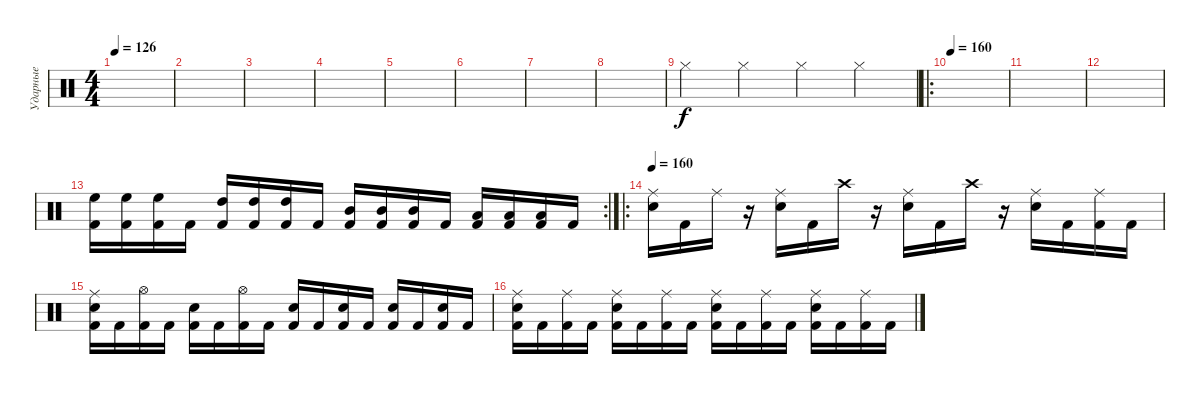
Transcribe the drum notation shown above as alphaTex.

\track ("Ударные" "Ударные") {instrument percussion}
\staff {score}
\articulation defaults
\ts (4 4)
\tempo 126
\clef neutral
\ks c
|
|
|
|
|
|
|
|
"Hi-Hat (closed)".4 "Hi-Hat (closed)".4 "Hi-Hat (closed)".4 "Hi-Hat (closed)".4 |
\ro
\tempo 160
|
|
|
\rc 2
("Kick (hit) 2" "High Floor Tom (hit)").16 ("Kick (hit) 2" "High Floor Tom (hit)").16 ("Kick (hit) 2" "High Floor Tom (hit)").16 "Kick (hit) 2".16 ("Kick (hit) 2" "High Tom (hit)").16 ("Kick (hit) 2" "High Tom (hit)").16 ("Kick (hit) 2" "High Tom (hit)").16 "Kick (hit) 2".16 ("Kick (hit) 2" "Mid Tom (hit)").16 ("Kick (hit) 2" "Mid Tom (hit)").16 ("Kick (hit) 2" "Mid Tom (hit)").16 "Kick (hit) 2".16 ("Kick (hit) 2" "Low Tom (hit)").16 ("Kick (hit) 2" "Low Tom (hit)").16 ("Kick (hit) 2" "Low Tom (hit)").16 "Kick (hit) 2".16 |
\ro
\tempo 160
("Ride (middle)" "Snare (hit) 2").16 "Kick (hit) 2".16 "Ride (middle)".16 r.16 ("Ride (middle)" "Snare (hit) 2").16 "Kick (hit) 2".16 "Crash high (hit)".16 r.16 ("Ride (middle)" "Snare (hit) 2").16 "Kick (hit) 2".16 "Crash high (hit)".16 r.16 ("Ride (middle)" "Snare (hit) 2").16 "Kick (hit) 2".16 ("Kick (hit) 2" "Ride (middle)").16 "Kick (hit) 2".16 |
("Kick (hit) 2" "Ride (middle)" "Snare (hit) 2").16 "Kick (hit) 2".16 ("Kick (hit) 2" "Hi-Hat (open)").16 "Kick (hit) 2".16 ("Kick (hit) 2" "Snare (hit) 2").16 "Kick (hit) 2".16 ("Kick (hit) 2" "Hi-Hat (open)").16 "Kick (hit) 2".16 ("Kick (hit) 2" "Snare (hit) 2").16 "Kick (hit) 2".16 ("Kick (hit) 2" "Snare (hit) 2").16 "Kick (hit) 2".16 ("Kick (hit) 2" "Snare (hit) 2").16 "Kick (hit) 2".16 ("Kick (hit) 2" "Snare (hit) 2").16 "Kick (hit) 2".16 |
("Kick (hit) 2" "Ride (middle)" "Snare (hit) 2").16 "Kick (hit) 2".16 ("Kick (hit) 2" "Ride (middle)").16 "Kick (hit) 2".16 ("Kick (hit) 2" "Ride (middle)" "Snare (hit) 2").16 "Kick (hit) 2".16 ("Kick (hit) 2" "Ride (middle)").16 "Kick (hit) 2".16 ("Kick (hit) 2" "Ride (middle)" "Snare (hit) 2").16 "Kick (hit) 2".16 ("Kick (hit) 2" "Ride (middle)").16 "Kick (hit) 2".16 ("Kick (hit) 2" "Ride (middle)" "Snare (hit) 2").16 "Kick (hit) 2".16 ("Kick (hit) 2" "Ride (middle)").16 "Kick (hit) 2".16
